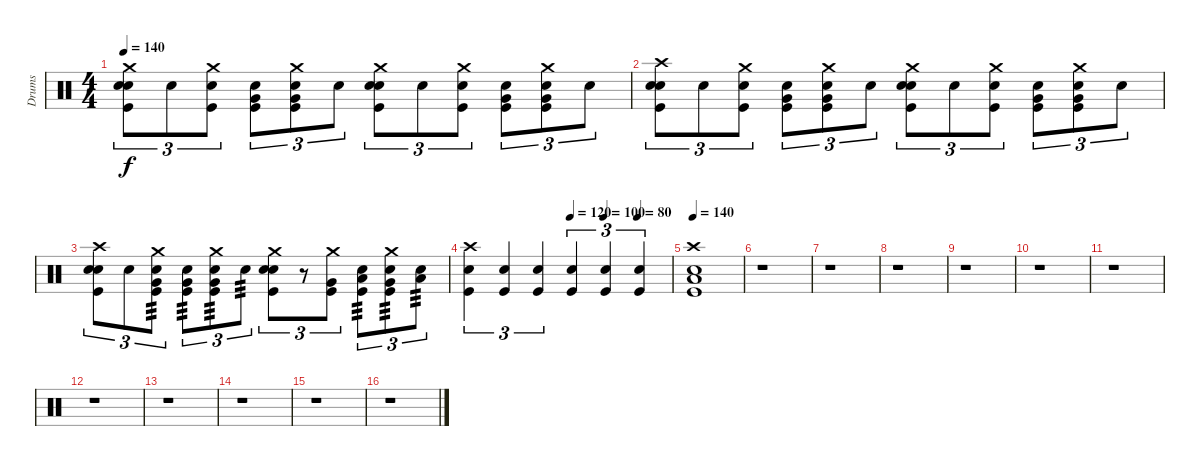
\track ("Drums" "Drums") {instrument percussion}
\staff {score}
\articulation defaults
\ts (4 4)
\tempo 140
\clef neutral
\ks c
("Crash medium (hit)" "Snare (hit) 2" "Snare (hit) 2" "Kick (hit)").8{tu (3 2) dy f} "Snare (hit) 2".8{tu (3 2)} ("Crash medium (hit)" "Snare (hit) 2" "Kick (hit)").8{tu (3 2)} ("Snare (hit) 2" "Very Low Tom (hit)" "Kick (hit)").8{tu (3 2)} ("Crash medium (hit)" "Snare (hit) 2" "Very Low Tom (hit)" "Kick (hit)").8{tu (3 2)} "Snare (hit) 2".8{tu (3 2)} ("Crash medium (hit)" "Snare (hit) 2" "Snare (hit) 2" "Kick (hit)").8{tu (3 2)} "Snare (hit) 2".8{tu (3 2)} ("Crash medium (hit)" "Snare (hit) 2" "Kick (hit)").8{tu (3 2)} ("Snare (hit) 2" "Very Low Tom (hit)" "Kick (hit)").8{tu (3 2)} ("Crash medium (hit)" "Snare (hit) 2" "Very Low Tom (hit)" "Kick (hit)").8{tu (3 2)} "Snare (hit) 2".8{tu (3 2)} |
("Crash high (hit)" "Snare (hit) 2" "Snare (hit) 2" "Kick (hit)").8{tu (3 2)} "Snare (hit) 2".8{tu (3 2)} ("Crash medium (hit)" "Snare (hit) 2" "Kick (hit)").8{tu (3 2)} ("Snare (hit) 2" "Very Low Tom (hit)" "Kick (hit)").8{tu (3 2)} ("Crash medium (hit)" "Snare (hit) 2" "Very Low Tom (hit)" "Kick (hit)").8{tu (3 2)} "Snare (hit) 2".8{tu (3 2)} ("Crash medium (hit)" "Snare (hit) 2" "Snare (hit) 2" "Kick (hit)").8{tu (3 2)} "Snare (hit) 2".8{tu (3 2)} ("Crash medium (hit)" "Snare (hit) 2" "Kick (hit)").8{tu (3 2)} ("Snare (hit) 2" "Very Low Tom (hit)" "Kick (hit)").8{tu (3 2)} ("Crash medium (hit)" "Snare (hit) 2" "Very Low Tom (hit)" "Kick (hit)").8{tu (3 2)} "Snare (hit) 2".8{tu (3 2)} |
("Crash high (hit)" "Snare (hit) 2" "Snare (hit) 2" "Kick (hit)").8{tu (3 2)} "Snare (hit) 2".8{tu (3 2)} ("Crash medium (hit)" "Snare (hit) 2" "Very Low Tom (hit)" "Kick (hit)").8{tu (3 2) tp 3} ("Snare (hit) 2" "Very Low Tom (hit)" "Kick (hit)").8{tu (3 2) tp 3} ("Crash medium (hit)" "Snare (hit) 2" "Very Low Tom (hit)" "Kick (hit)").8{tu (3 2) tp 3} "Snare (hit) 2".8{tu (3 2) tp 3} ("Crash medium (hit)" "Snare (hit) 2" "Snare (hit) 2" "Kick (hit)").8{tu (3 2)} r.8{tu (3 2)} ("Crash medium (hit)" "Very Low Tom (hit)" "Kick (hit)").8{tu (3 2)} ("Snare (hit) 2" "Low Tom (hit)" "Kick (hit)").8{tu (3 2) tp 3} ("Crash medium (hit)" "Snare (hit) 2" "Very Low Tom (hit)" "Kick (hit)").8{tu (3 2) tp 3} ("Snare (hit) 2" "Low Floor Tom (hit)").8{tu (3 2) tp 3} |
\tempo (120 0.5)
\tempo (100 0.6666666666666666)
\tempo (80 0.8333333333333334)
("Crash high (hit)" "Snare (hit) 2" "Kick (hit)").4{tu (3 2)} ("Snare (hit) 2" "Kick (hit)").4{tu (3 2)} ("Snare (hit) 2" "Kick (hit)").4{tu (3 2)} ("Snare (hit) 2" "Kick (hit)").4{tu (3 2)} ("Snare (hit) 2" "Kick (hit)").4{tu (3 2)} ("Snare (hit) 2" "Kick (hit)").4{tu (3 2)} |
\tempo 140
("Crash high (hit)" "Low Floor Tom (hit)" "Snare (hit) 2" "Kick (hit)").1 |
r.1 |
r.1 |
r.1 |
r.1 |
r.1 |
r.1 |
r.1 |
r.1 |
r.1 |
r.1 |
r.1
